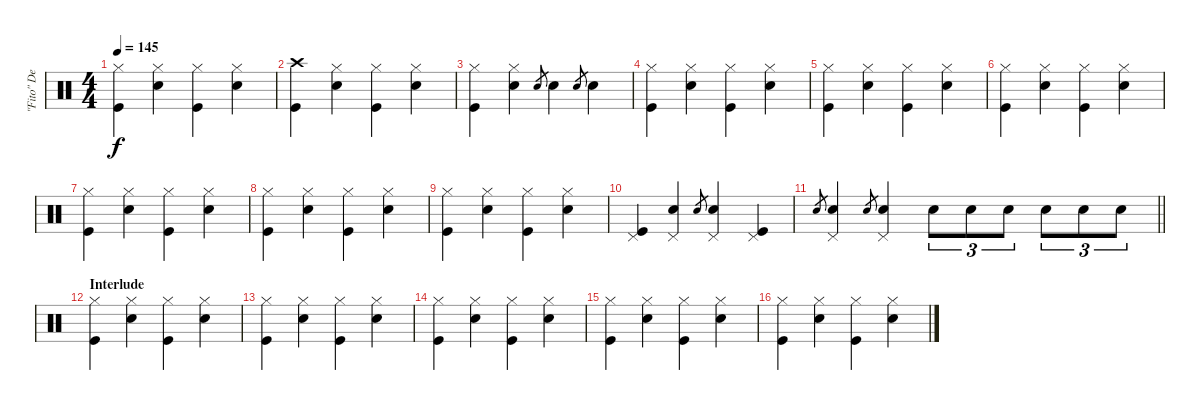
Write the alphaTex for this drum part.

\track ("\"Fito\" De La Parra" "\"Fito\" De ") {instrument percussion}
\staff {score}
\articulation defaults
\ts (4 4)
\tempo 145
\clef neutral
\ks c
("Hi-Hat (closed)" "Kick (hit)").4{dy f} ("Hi-Hat (closed)" "Snare (hit) 2").4 ("Hi-Hat (closed)" "Kick (hit)").4 ("Hi-Hat (closed)" "Snare (hit) 2").4 |
("Crash high (hit)" "Kick (hit)").4 ("Hi-Hat (closed)" "Snare (hit) 2").4 ("Hi-Hat (closed)" "Kick (hit)").4 ("Hi-Hat (closed)" "Snare (hit) 2").4 |
("Hi-Hat (closed)" "Kick (hit)").4 ("Hi-Hat (closed)" "Snare (hit) 2").4 "Snare (hit) 2".8{gr} "Snare (hit) 2".4 "Snare (hit) 2".8{gr} "Snare (hit) 2".4 |
("Hi-Hat (closed)" "Kick (hit)").4 ("Hi-Hat (closed)" "Snare (hit) 2").4 ("Hi-Hat (closed)" "Kick (hit)").4 ("Hi-Hat (closed)" "Snare (hit) 2").4 |
("Hi-Hat (closed)" "Kick (hit)").4 ("Hi-Hat (closed)" "Snare (hit) 2").4 ("Hi-Hat (closed)" "Kick (hit)").4 ("Hi-Hat (closed)" "Snare (hit) 2").4 |
("Hi-Hat (closed)" "Kick (hit)").4 ("Hi-Hat (closed)" "Snare (hit) 2").4 ("Hi-Hat (closed)" "Kick (hit)").4 ("Hi-Hat (closed)" "Snare (hit) 2").4 |
("Hi-Hat (closed)" "Kick (hit)").4 ("Hi-Hat (closed)" "Snare (hit) 2").4 ("Hi-Hat (closed)" "Kick (hit)").4 ("Hi-Hat (closed)" "Snare (hit) 2").4 |
("Hi-Hat (closed)" "Kick (hit)").4 ("Hi-Hat (closed)" "Snare (hit) 2").4 ("Hi-Hat (closed)" "Kick (hit)").4 ("Hi-Hat (closed)" "Snare (hit) 2").4 |
("Hi-Hat (closed)" "Kick (hit)").4 ("Hi-Hat (closed)" "Snare (hit) 2").4 ("Hi-Hat (closed)" "Kick (hit)").4 ("Hi-Hat (closed)" "Snare (hit) 2").4 |
("Pedal Hi-Hat (hit)" "Kick (hit)").4 ("Pedal Hi-Hat (hit)" "Snare (hit) 2").4 "Snare (hit) 2".8{gr} ("Pedal Hi-Hat (hit)" "Snare (hit) 2").4 ("Pedal Hi-Hat (hit)" "Kick (hit)").4 |
\barLineRight lightlight "Snare (hit) 2".8{gr}
("Pedal Hi-Hat (hit)" "Snare (hit) 2").4 "Snare (hit) 2".8{gr} ("Pedal Hi-Hat (hit)" "Snare (hit) 2").4 "Snare (hit) 2".8{tu (3 2)} "Snare (hit) 2".8{tu (3 2)} "Snare (hit) 2".8{tu (3 2)} "Snare (hit) 2".8{tu (3 2)} "Snare (hit) 2".8{tu (3 2)} "Snare (hit) 2".8{tu (3 2)} |
\section ("" "Interlude")
("Hi-Hat (closed)" "Kick (hit)").4 ("Hi-Hat (closed)" "Snare (hit) 2").4 ("Hi-Hat (closed)" "Kick (hit)").4 ("Hi-Hat (closed)" "Snare (hit) 2").4 |
("Hi-Hat (closed)" "Kick (hit)").4 ("Hi-Hat (closed)" "Snare (hit) 2").4 ("Hi-Hat (closed)" "Kick (hit)").4 ("Hi-Hat (closed)" "Snare (hit) 2").4 |
("Hi-Hat (closed)" "Kick (hit)").4 ("Hi-Hat (closed)" "Snare (hit) 2").4 ("Hi-Hat (closed)" "Kick (hit)").4 ("Hi-Hat (closed)" "Snare (hit) 2").4 |
("Hi-Hat (closed)" "Kick (hit)").4 ("Hi-Hat (closed)" "Snare (hit) 2").4 ("Hi-Hat (closed)" "Kick (hit)").4 ("Hi-Hat (closed)" "Snare (hit) 2").4 |
("Hi-Hat (closed)" "Kick (hit)").4 ("Hi-Hat (closed)" "Snare (hit) 2").4 ("Hi-Hat (closed)" "Kick (hit)").4 ("Hi-Hat (closed)" "Snare (hit) 2").4
